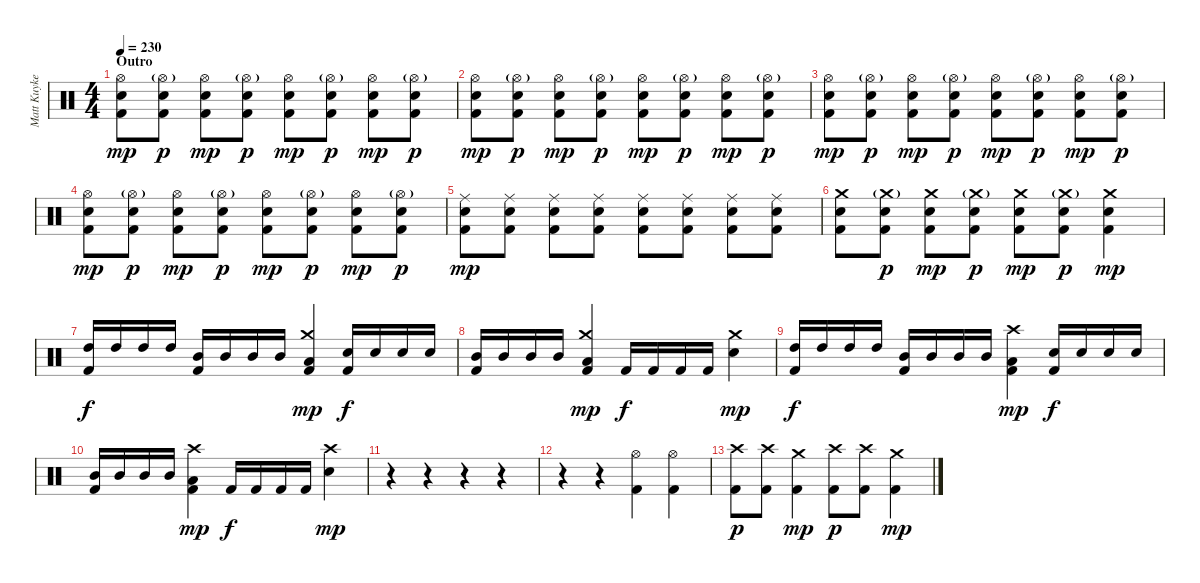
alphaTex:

\track ("Matt Kuykendall" "Matt Kuyke") {instrument percussion}
\staff {score}
\articulation defaults
\ts (4 4)
\section ("" "Outro")
\tempo 230
\clef neutral
\ks c
("Hi-Hat (open)" "Electric Snare (hit)" "Kick (hit) 2").8{dy mp} ("Hi-Hat (open)"{g} "Electric Snare (hit)" "Kick (hit) 2").8{dy p} ("Hi-Hat (open)" "Electric Snare (hit)" "Kick (hit) 2").8{dy mp} ("Hi-Hat (open)"{g} "Electric Snare (hit)" "Kick (hit) 2").8{dy p} ("Hi-Hat (open)" "Electric Snare (hit)" "Kick (hit) 2").8{dy mp} ("Hi-Hat (open)"{g} "Electric Snare (hit)" "Kick (hit) 2").8{dy p} ("Hi-Hat (open)" "Electric Snare (hit)" "Kick (hit) 2").8{dy mp} ("Hi-Hat (open)"{g} "Electric Snare (hit)" "Kick (hit) 2").8{dy p} |
("Hi-Hat (open)" "Electric Snare (hit)" "Kick (hit) 2").8{dy mp} ("Hi-Hat (open)"{g} "Electric Snare (hit)" "Kick (hit) 2").8{dy p} ("Hi-Hat (open)" "Electric Snare (hit)" "Kick (hit) 2").8{dy mp} ("Hi-Hat (open)"{g} "Electric Snare (hit)" "Kick (hit) 2").8{dy p} ("Hi-Hat (open)" "Electric Snare (hit)" "Kick (hit) 2").8{dy mp} ("Hi-Hat (open)"{g} "Electric Snare (hit)" "Kick (hit) 2").8{dy p} ("Hi-Hat (open)" "Electric Snare (hit)" "Kick (hit) 2").8{dy mp} ("Hi-Hat (open)"{g} "Electric Snare (hit)" "Kick (hit) 2").8{dy p} |
("Hi-Hat (open)" "Electric Snare (hit)" "Kick (hit) 2").8{dy mp} ("Hi-Hat (open)"{g} "Electric Snare (hit)" "Kick (hit) 2").8{dy p} ("Hi-Hat (open)" "Electric Snare (hit)" "Kick (hit) 2").8{dy mp} ("Hi-Hat (open)"{g} "Electric Snare (hit)" "Kick (hit) 2").8{dy p} ("Hi-Hat (open)" "Electric Snare (hit)" "Kick (hit) 2").8{dy mp} ("Hi-Hat (open)"{g} "Electric Snare (hit)" "Kick (hit) 2").8{dy p} ("Hi-Hat (open)" "Electric Snare (hit)" "Kick (hit) 2").8{dy mp} ("Hi-Hat (open)"{g} "Electric Snare (hit)" "Kick (hit) 2").8{dy p} |
("Hi-Hat (open)" "Electric Snare (hit)" "Kick (hit) 2").8{dy mp} ("Hi-Hat (open)"{g} "Electric Snare (hit)" "Kick (hit) 2").8{dy p} ("Hi-Hat (open)" "Electric Snare (hit)" "Kick (hit) 2").8{dy mp} ("Hi-Hat (open)"{g} "Electric Snare (hit)" "Kick (hit) 2").8{dy p} ("Hi-Hat (open)" "Electric Snare (hit)" "Kick (hit) 2").8{dy mp} ("Hi-Hat (open)"{g} "Electric Snare (hit)" "Kick (hit) 2").8{dy p} ("Hi-Hat (open)" "Electric Snare (hit)" "Kick (hit) 2").8{dy mp} ("Hi-Hat (open)"{g} "Electric Snare (hit)" "Kick (hit) 2").8{dy p} |
("Ride (middle)" "Electric Snare (hit)" "Kick (hit) 2").8{dy mp} ("Ride (middle)" "Electric Snare (hit)" "Kick (hit) 2").8 ("Ride (middle)" "Electric Snare (hit)" "Kick (hit) 2").8 ("Ride (middle)" "Electric Snare (hit)" "Kick (hit) 2").8 ("Ride (middle)" "Electric Snare (hit)" "Kick (hit) 2").8 ("Ride (middle)" "Electric Snare (hit)" "Kick (hit) 2").8 ("Ride (middle)" "Electric Snare (hit)" "Kick (hit) 2").8 ("Ride (middle)" "Electric Snare (hit)" "Kick (hit) 2").8 |
("Crash medium (hit)" "Electric Snare (hit)" "Kick (hit) 2").8 ("Crash medium (hit)"{g} "Electric Snare (hit)" "Kick (hit) 2").8{dy p} ("Crash medium (hit)" "Electric Snare (hit)" "Kick (hit) 2").8{dy mp} ("Crash medium (hit)"{g} "Electric Snare (hit)" "Kick (hit) 2").8{dy p} ("Crash medium (hit)" "Electric Snare (hit)" "Kick (hit) 2").8{dy mp} ("Crash medium (hit)"{g} "Electric Snare (hit)" "Kick (hit) 2").8{dy p} ("Crash medium (hit)" "Electric Snare (hit)" "Kick (hit) 2").4{dy mp} |
("High Tom (hit)" "Kick (hit) 2").16{dy f} "High Tom (hit)".16 "High Tom (hit)".16 "High Tom (hit)".16 ("Mid Tom (hit)" "Kick (hit) 2").16 "Mid Tom (hit)".16 "Mid Tom (hit)".16 "Mid Tom (hit)".16 ("Crash medium (hit)" "Low Tom (hit)" "Kick (hit) 2").4{dy mp} ("Electric Snare (hit)" "Kick (hit) 2").16{dy f} "Electric Snare (hit)".16 "Electric Snare (hit)".16 "Electric Snare (hit)".16 |
("Mid Tom (hit)" "Kick (hit) 2").16 "Mid Tom (hit)".16 "Mid Tom (hit)".16 "Mid Tom (hit)".16 ("Crash medium (hit)" "Low Tom (hit)" "Kick (hit) 2").4{dy mp} "Kick (hit) 2".16{dy f} "Kick (hit) 2".16 "Kick (hit) 2".16 "Kick (hit) 2".16 ("Crash medium (hit)" "Electric Snare (hit)").4{dy mp} |
("High Tom (hit)" "Kick (hit) 2").16{dy f} "High Tom (hit)".16 "High Tom (hit)".16 "High Tom (hit)".16 ("Mid Tom (hit)" "Kick (hit) 2").16 "Mid Tom (hit)".16 "Mid Tom (hit)".16 "Mid Tom (hit)".16 ("Crash high (hit)" "Low Tom (hit)" "Kick (hit) 2").4{dy mp} ("Electric Snare (hit)" "Kick (hit) 2").16{dy f} "Electric Snare (hit)".16 "Electric Snare (hit)".16 "Electric Snare (hit)".16 |
("Mid Tom (hit)" "Kick (hit) 2").16 "Mid Tom (hit)".16 "Mid Tom (hit)".16 "Mid Tom (hit)".16 ("Crash high (hit)" "Low Tom (hit)" "Kick (hit) 2").4{dy mp} "Kick (hit) 2".16{dy f} "Kick (hit) 2".16 "Kick (hit) 2".16 "Kick (hit) 2".16 ("Crash high (hit)" "Electric Snare (hit)").4{dy mp} |
r.4 r.4 r.4 r.4 |
r.4 r.4 ("Hi-Hat (open)" "Kick (hit) 2").4 ("Hi-Hat (open)" "Kick (hit) 2").4 |
("Crash high (hit)" "Kick (hit) 2").8{dy p} ("Crash high (hit)" "Kick (hit) 2").8 ("Crash medium (hit)" "Kick (hit) 2").4{dy mp} ("Crash high (hit)" "Kick (hit) 2").8{dy p} ("Crash high (hit)" "Kick (hit) 2").8 ("Crash medium (hit)" "Kick (hit) 2").4{dy mp}
